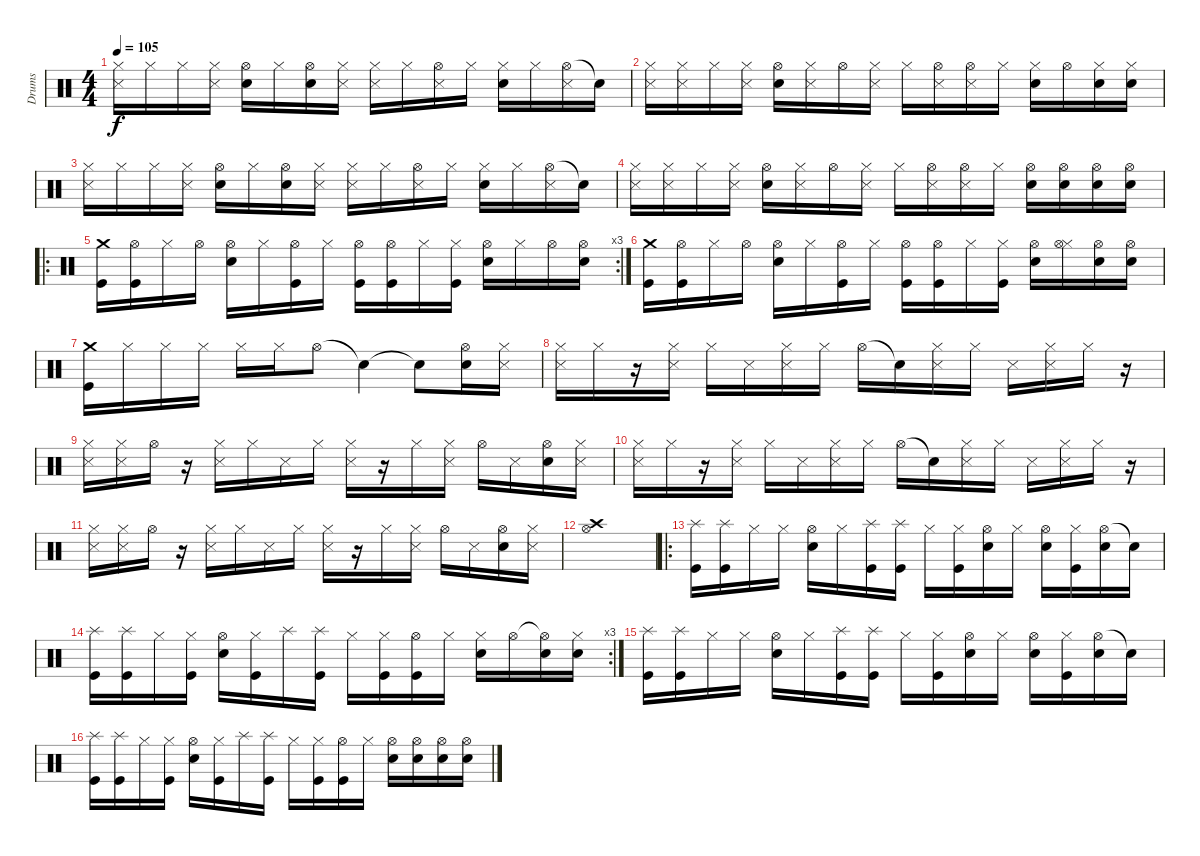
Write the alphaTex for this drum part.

\track ("Drums" "Drums") {instrument percussion}
\staff {score}
\articulation defaults
\ts (4 4)
\tempo 105
\clef neutral
\ks c
("Hi-Hat (closed)" "Metronome (hit)").16{dy f} "Hi-Hat (closed)".16 "Hi-Hat (closed)".16 ("Hi-Hat (closed)" "Metronome (hit)").16 ("Hi-Hat (open)" "Metronome (bell)").16 "Hi-Hat (closed)".16 ("Hi-Hat (open)" "Metronome (bell)").16 ("Hi-Hat (closed)" "Metronome (hit)").16 ("Hi-Hat (closed)" "Metronome (hit)").16 "Hi-Hat (closed)".16 ("Hi-Hat (open)" "Metronome (hit)").16 "Hi-Hat (closed)".16 ("Hi-Hat (closed)" "Metronome (bell)").16 "Hi-Hat (closed)".16 ("Hi-Hat (open)" "Metronome (hit)").16 "Snare (hit)"{t}.16 |
("Hi-Hat (closed)" "Metronome (hit)").16 ("Hi-Hat (closed)" "Metronome (hit)").16 "Hi-Hat (closed)".16 ("Hi-Hat (closed)" "Metronome (hit)").16 ("Hi-Hat (open)" "Metronome (bell)").16 ("Hi-Hat (closed)" "Metronome (hit)").16 "Hi-Hat (open)".16 ("Hi-Hat (closed)" "Metronome (hit)").16 "Hi-Hat (closed)".16 ("Hi-Hat (open)" "Metronome (hit)").16 ("Hi-Hat (open)" "Metronome (hit)").16 "Hi-Hat (closed)".16 ("Hi-Hat (closed)" "Metronome (bell)").16 "Hi-Hat (open)".16 ("Hi-Hat (closed)" "Metronome (bell)").16 ("Hi-Hat (closed)" "Metronome (bell)").16 |
("Hi-Hat (closed)" "Metronome (hit)").16 "Hi-Hat (closed)".16 "Hi-Hat (closed)".16 ("Hi-Hat (closed)" "Metronome (hit)").16 ("Hi-Hat (open)" "Metronome (bell)").16 "Hi-Hat (closed)".16 ("Hi-Hat (open)" "Metronome (bell)").16 ("Hi-Hat (closed)" "Metronome (hit)").16 ("Hi-Hat (closed)" "Metronome (hit)").16 "Hi-Hat (closed)".16 ("Hi-Hat (open)" "Metronome (hit)").16 "Hi-Hat (closed)".16 ("Hi-Hat (closed)" "Metronome (bell)").16 "Hi-Hat (closed)".16 ("Hi-Hat (open)" "Metronome (hit)").16 "Snare (hit)"{t}.16 |
("Hi-Hat (closed)" "Metronome (hit)").16 ("Hi-Hat (closed)" "Metronome (hit)").16 "Hi-Hat (closed)".16 ("Hi-Hat (closed)" "Metronome (hit)").16 ("Hi-Hat (open)" "Metronome (bell)").16 ("Hi-Hat (closed)" "Metronome (hit)").16 "Hi-Hat (open)".16 ("Hi-Hat (closed)" "Metronome (hit)").16 "Hi-Hat (closed)".16 ("Hi-Hat (open)" "Metronome (hit)").16 ("Hi-Hat (open)" "Metronome (hit)").16 "Hi-Hat (closed)".16 ("Hi-Hat (open)" "Metronome (bell)").16 ("Hi-Hat (open)" "Metronome (bell)").16 ("Hi-Hat (open)" "Metronome (bell)").16 ("Hi-Hat (open)" "Metronome (bell)").16 |
\ro
\rc 3
("Crash medium (hit)" "Kick (hit)").16 ("Hi-Hat (open)" "Kick (hit)").16 "Hi-Hat (closed)".16 "Hi-Hat (open)".16 ("Hi-Hat (open)" "Electric Snare (hit)").16 "Hi-Hat (closed)".16 ("Hi-Hat (open)" "Kick (hit)").16 "Hi-Hat (closed)".16 ("Hi-Hat (open)" "Kick (hit)").16 ("Hi-Hat (open)" "Kick (hit)").16 "Hi-Hat (closed)".16 ("Hi-Hat (closed)" "Kick (hit)").16 ("Hi-Hat (open)" "Electric Snare (hit)").16 "Hi-Hat (closed)".16 "Hi-Hat (open)".16 ("Hi-Hat (open)" "Electric Snare (hit)").16 |
("Crash medium (hit)" "Kick (hit)").16 ("Hi-Hat (open)" "Kick (hit)").16 "Hi-Hat (closed)".16 "Hi-Hat (open)".16 ("Hi-Hat (open)" "Electric Snare (hit)").16 "Hi-Hat (closed)".16 ("Hi-Hat (open)" "Kick (hit)").16 "Hi-Hat (closed)".16 ("Hi-Hat (open)" "Kick (hit)").16 ("Hi-Hat (open)" "Kick (hit)").16 "Hi-Hat (closed)".16 ("Hi-Hat (closed)" "Kick (hit)").16 ("Hi-Hat (open)" "Electric Snare (hit)").16 ("Hi-Hat (closed)" "Hi-Hat (open)").16 ("Hi-Hat (open)" "Electric Snare (hit)").16 ("Hi-Hat (open)" "Electric Snare (hit)").16 |
("Crash medium (hit)" "Kick (hit)").16 "Hi-Hat (closed)".16 "Hi-Hat (closed)".16 "Hi-Hat (closed)".16 "Hi-Hat (closed)".16 "Hi-Hat (closed)".16 "Hi-Hat (open)".8 "Snare (hit)"{t}.4 "Snare (hit)"{t}.8 ("Hi-Hat (open)" "Metronome (bell)").16 ("Hi-Hat (closed)" "Metronome (hit)").16 |
("Hi-Hat (closed)" "Metronome (hit)").16 "Hi-Hat (closed)".16 r.16 ("Hi-Hat (closed)" "Metronome (hit)").16 "Hi-Hat (closed)".16 "Metronome (hit)".16 ("Hi-Hat (closed)" "Metronome (hit)").16 "Hi-Hat (closed)".16 "Hi-Hat (open)".16 "Snare (hit)"{t}.16 ("Hi-Hat (closed)" "Metronome (hit)").16 "Hi-Hat (closed)".16 "Metronome (hit)".16 ("Hi-Hat (closed)" "Metronome (hit)").16 "Hi-Hat (closed)".16 r.16 |
("Hi-Hat (closed)" "Metronome (hit)").16 ("Hi-Hat (closed)" "Metronome (hit)").16 "Hi-Hat (open)".16 r.16 ("Hi-Hat (closed)" "Metronome (hit)").16 "Hi-Hat (closed)".16 "Metronome (hit)".16 "Hi-Hat (closed)".16 ("Hi-Hat (closed)" "Metronome (hit)").16 r.16 "Hi-Hat (closed)".16 ("Hi-Hat (closed)" "Metronome (hit)").16 "Hi-Hat (open)".16 "Metronome (hit)".16 ("Hi-Hat (open)" "Metronome (bell)").16 ("Hi-Hat (closed)" "Metronome (hit)").16 |
("Hi-Hat (closed)" "Metronome (hit)").16 "Hi-Hat (closed)".16 r.16 ("Hi-Hat (closed)" "Metronome (hit)").16 "Hi-Hat (closed)".16 "Metronome (hit)".16 ("Hi-Hat (closed)" "Metronome (hit)").16 "Hi-Hat (closed)".16 "Hi-Hat (open)".16 "Snare (hit)"{t}.16 ("Hi-Hat (closed)" "Metronome (hit)").16 "Hi-Hat (closed)".16 "Metronome (hit)".16 ("Hi-Hat (closed)" "Metronome (hit)").16 "Hi-Hat (closed)".16 r.16 |
("Hi-Hat (closed)" "Metronome (hit)").16 ("Hi-Hat (closed)" "Metronome (hit)").16 "Hi-Hat (open)".16 r.16 ("Hi-Hat (closed)" "Metronome (hit)").16 "Hi-Hat (closed)".16 "Metronome (hit)".16 "Hi-Hat (closed)".16 ("Hi-Hat (closed)" "Metronome (hit)").16 r.16 "Hi-Hat (closed)".16 ("Hi-Hat (closed)" "Metronome (hit)").16 "Hi-Hat (open)".16 "Metronome (hit)".16 ("Hi-Hat (open)" "Metronome (bell)").16 ("Hi-Hat (closed)" "Metronome (hit)").16 |
("Hi-Hat (open)" "Crash high (hit)").1 |
\ro
("Splash (hit)" "Kick (hit)").16 ("Splash (hit)" "Kick (hit)").16 "Hi-Hat (closed)".16 "Hi-Hat (closed)".16 ("Hi-Hat (open)" "Metronome (bell)").16 "Hi-Hat (closed)".16 ("Splash (hit)" "Kick (hit)").16 ("Splash (hit)" "Kick (hit)").16 "Hi-Hat (closed)".16 ("Hi-Hat (closed)" "Kick (hit)").16 ("Hi-Hat (open)" "Metronome (bell)").16 "Hi-Hat (closed)".16 ("Hi-Hat (open)" "Metronome (bell)").16 ("Hi-Hat (closed)" "Kick (hit)").16 ("Hi-Hat (open)" "Metronome (bell)").16 "Snare (hit)"{t}.16 |
\rc 3
("Splash (hit)" "Kick (hit)").16 ("Splash (hit)" "Kick (hit)").16 "Hi-Hat (closed)".16 ("Hi-Hat (closed)" "Kick (hit)").16 ("Hi-Hat (open)" "Metronome (bell)").16 ("Hi-Hat (closed)" "Kick (hit)").16 "Splash (hit)".16 ("Splash (hit)" "Kick (hit)").16 "Hi-Hat (closed)".16 ("Hi-Hat (closed)" "Kick (hit)").16 ("Hi-Hat (open)" "Kick (hit)").16 "Hi-Hat (closed)".16 ("Hi-Hat (closed)" "Metronome (bell)").16 "Hi-Hat (open)".16 ("Hi-Hat (open)"{t} "Metronome (bell)").16 ("Hi-Hat (closed)" "Metronome (bell)").16 |
("Splash (hit)" "Kick (hit)").16 ("Splash (hit)" "Kick (hit)").16 "Hi-Hat (closed)".16 "Hi-Hat (closed)".16 ("Hi-Hat (open)" "Metronome (bell)").16 "Hi-Hat (closed)".16 ("Splash (hit)" "Kick (hit)").16 ("Splash (hit)" "Kick (hit)").16 "Hi-Hat (closed)".16 ("Hi-Hat (closed)" "Kick (hit)").16 ("Hi-Hat (open)" "Metronome (bell)").16 "Hi-Hat (closed)".16 ("Hi-Hat (open)" "Metronome (bell)").16 ("Hi-Hat (closed)" "Kick (hit)").16 ("Hi-Hat (open)" "Metronome (bell)").16 "Snare (hit)"{t}.16 |
("Splash (hit)" "Kick (hit)").16 ("Splash (hit)" "Kick (hit)").16 "Hi-Hat (closed)".16 ("Hi-Hat (closed)" "Kick (hit)").16 ("Hi-Hat (open)" "Metronome (bell)").16 ("Hi-Hat (closed)" "Kick (hit)").16 "Splash (hit)".16 ("Splash (hit)" "Kick (hit)").16 "Hi-Hat (closed)".16 ("Hi-Hat (closed)" "Kick (hit)").16 ("Hi-Hat (open)" "Kick (hit)").16 "Hi-Hat (closed)".16 ("Hi-Hat (open)" "Electric Snare (hit)").16 ("Hi-Hat (open)" "Electric Snare (hit)").16 ("Hi-Hat (open)" "Electric Snare (hit)").16 ("Hi-Hat (open)" "Electric Snare (hit)").16
